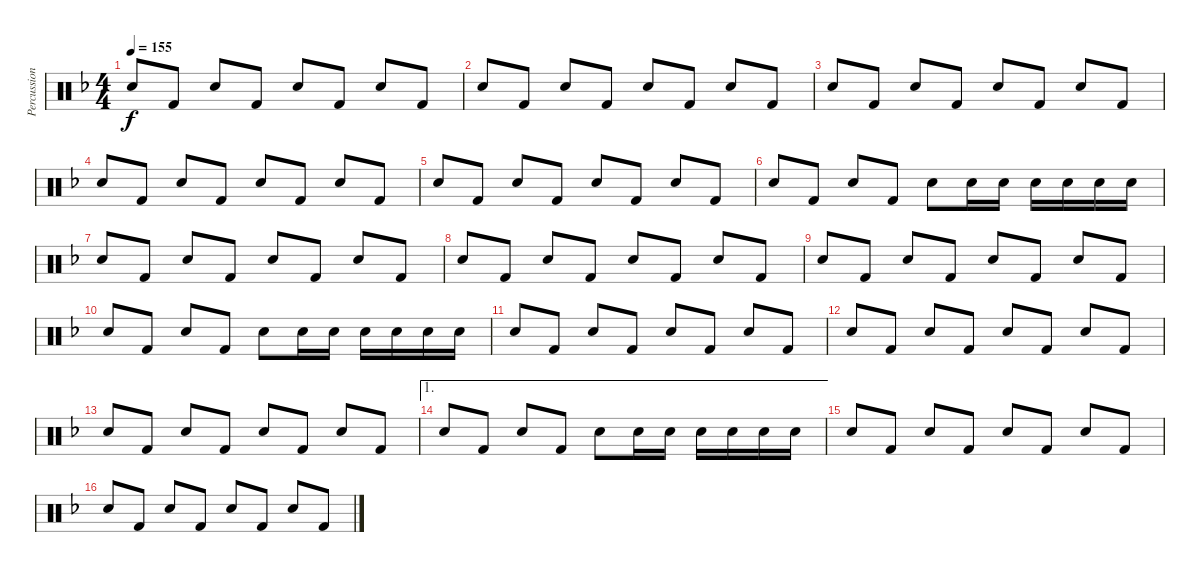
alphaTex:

\track ("Percussions" "Percussion") {instrument percussion}
\staff {score}
\articulation defaults
\ts (4 4)
\tempo 155
\clef neutral
\ks f "Snare (hit) 2".8{dy f} "Kick (hit) 2".8 "Snare (hit) 2".8 "Kick (hit) 2".8 "Snare (hit) 2".8 "Kick (hit) 2".8 "Snare (hit) 2".8 "Kick (hit) 2".8
|
"Snare (hit) 2".8 "Kick (hit) 2".8 "Snare (hit) 2".8 "Kick (hit) 2".8 "Snare (hit) 2".8 "Kick (hit) 2".8 "Snare (hit) 2".8 "Kick (hit) 2".8 |
"Snare (hit) 2".8 "Kick (hit) 2".8 "Snare (hit) 2".8 "Kick (hit) 2".8 "Snare (hit) 2".8 "Kick (hit) 2".8 "Snare (hit) 2".8 "Kick (hit) 2".8 |
"Snare (hit) 2".8 "Kick (hit) 2".8 "Snare (hit) 2".8 "Kick (hit) 2".8 "Snare (hit) 2".8 "Kick (hit) 2".8 "Snare (hit) 2".8 "Kick (hit) 2".8 |
"Snare (hit) 2".8 "Kick (hit) 2".8 "Snare (hit) 2".8 "Kick (hit) 2".8 "Snare (hit) 2".8 "Kick (hit) 2".8 "Snare (hit) 2".8 "Kick (hit) 2".8 |
"Snare (hit) 2".8 "Kick (hit) 2".8 "Snare (hit) 2".8 "Kick (hit) 2".8 "Snare (hit) 2".8 "Snare (hit) 2".16 "Snare (hit) 2".16 "Snare (hit) 2".16 "Snare (hit) 2".16 "Snare (hit) 2".16 "Snare (hit) 2".16 |
"Snare (hit) 2".8 "Kick (hit) 2".8 "Snare (hit) 2".8 "Kick (hit) 2".8 "Snare (hit) 2".8 "Kick (hit) 2".8 "Snare (hit) 2".8 "Kick (hit) 2".8 |
"Snare (hit) 2".8 "Kick (hit) 2".8 "Snare (hit) 2".8 "Kick (hit) 2".8 "Snare (hit) 2".8 "Kick (hit) 2".8 "Snare (hit) 2".8 "Kick (hit) 2".8 |
"Snare (hit) 2".8 "Kick (hit) 2".8 "Snare (hit) 2".8 "Kick (hit) 2".8 "Snare (hit) 2".8 "Kick (hit) 2".8 "Snare (hit) 2".8 "Kick (hit) 2".8 |
"Snare (hit) 2".8 "Kick (hit) 2".8 "Snare (hit) 2".8 "Kick (hit) 2".8 "Snare (hit) 2".8 "Snare (hit) 2".16 "Snare (hit) 2".16 "Snare (hit) 2".16 "Snare (hit) 2".16 "Snare (hit) 2".16 "Snare (hit) 2".16 |
"Snare (hit) 2".8 "Kick (hit) 2".8 "Snare (hit) 2".8 "Kick (hit) 2".8 "Snare (hit) 2".8 "Kick (hit) 2".8 "Snare (hit) 2".8 "Kick (hit) 2".8 |
"Snare (hit) 2".8 "Kick (hit) 2".8 "Snare (hit) 2".8 "Kick (hit) 2".8 "Snare (hit) 2".8 "Kick (hit) 2".8 "Snare (hit) 2".8 "Kick (hit) 2".8 |
"Snare (hit) 2".8 "Kick (hit) 2".8 "Snare (hit) 2".8 "Kick (hit) 2".8 "Snare (hit) 2".8 "Kick (hit) 2".8 "Snare (hit) 2".8 "Kick (hit) 2".8 |
\ae 1 "Snare (hit) 2".8 "Kick (hit) 2".8 "Snare (hit) 2".8 "Kick (hit) 2".8 "Snare (hit) 2".8 "Snare (hit) 2".16 "Snare (hit) 2".16 "Snare (hit) 2".16 "Snare (hit) 2".16 "Snare (hit) 2".16 "Snare (hit) 2".16
|
"Snare (hit) 2".8 "Kick (hit) 2".8 "Snare (hit) 2".8 "Kick (hit) 2".8 "Snare (hit) 2".8 "Kick (hit) 2".8 "Snare (hit) 2".8 "Kick (hit) 2".8 |
"Snare (hit) 2".8 "Kick (hit) 2".8 "Snare (hit) 2".8 "Kick (hit) 2".8 "Snare (hit) 2".8 "Kick (hit) 2".8 "Snare (hit) 2".8 "Kick (hit) 2".8
